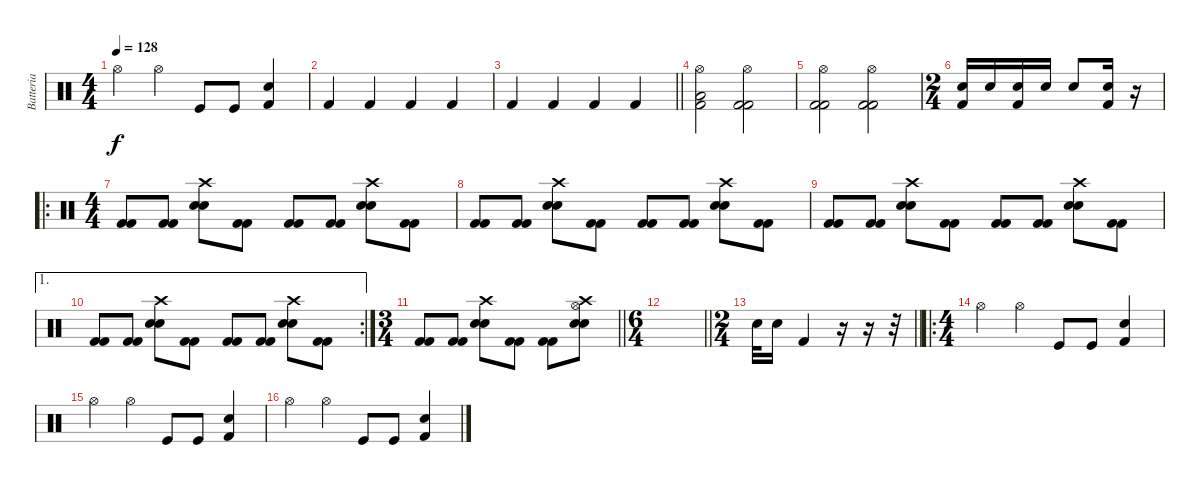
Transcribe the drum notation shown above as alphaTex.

\track ("Batteria" "Batteria") {instrument percussion}
\staff {score}
\articulation defaults
\ts (4 4)
\tempo 128
\clef neutral
\ks c "Hi-Hat (open)".4{dy f} "Hi-Hat (open)".4 "Kick (hit)".8 "Kick (hit)".8
("Kick (hit) 2" "Snare (hit) 2").4 |
"Kick (hit) 2".4 "Kick (hit) 2".4 "Kick (hit) 2".4 "Kick (hit) 2".4 |
\barLineRight lightlight "Kick (hit) 2".4 "Kick (hit) 2".4 "Kick (hit) 2".4 "Kick (hit) 2".4
|
("Kick (hit) 2" "Low Floor Tom (hit)" "Hi-Hat (open)").2 ("Kick (hit) 2" "Kick (hit) 2" "Hi-Hat (open)").2 |
("Kick (hit) 2" "Kick (hit) 2" "Hi-Hat (open)").2 ("Kick (hit) 2" "Kick (hit) 2" "Hi-Hat (open)").2 |
\ts (2 4)
("Snare (hit) 2" "Kick (hit) 2").16 "Snare (hit) 2".16 ("Snare (hit) 2" "Kick (hit) 2").16 "Snare (hit) 2".16 "Snare (hit) 2".8 ("Electric Snare (hit)" "Kick (hit) 2").16 r.16 |
\ro
\ts (4 4)
("Kick (hit) 2" "Kick (hit) 2").8 ("Kick (hit) 2" "Kick (hit) 2").8 ("Crash high (hit)" "Electric Snare (hit)" "Snare (hit) 2").8 ("Kick (hit) 2" "Kick (hit) 2").8 ("Kick (hit) 2" "Kick (hit) 2").8 ("Kick (hit) 2" "Kick (hit) 2").8 ("Crash high (hit)" "Electric Snare (hit)" "Snare (hit) 2").8 ("Kick (hit) 2" "Kick (hit) 2").8 |
("Kick (hit) 2" "Kick (hit) 2").8 ("Kick (hit) 2" "Kick (hit) 2").8 ("Crash high (hit)" "Electric Snare (hit)" "Snare (hit) 2").8 ("Kick (hit) 2" "Kick (hit) 2").8 ("Kick (hit) 2" "Kick (hit) 2").8 ("Kick (hit) 2" "Kick (hit) 2").8 ("Crash high (hit)" "Electric Snare (hit)" "Snare (hit) 2").8 ("Kick (hit) 2" "Kick (hit) 2").8 |
("Kick (hit) 2" "Kick (hit) 2").8 ("Kick (hit) 2" "Kick (hit) 2").8 ("Crash high (hit)" "Electric Snare (hit)" "Snare (hit) 2").8 ("Kick (hit) 2" "Kick (hit) 2").8 ("Kick (hit) 2" "Kick (hit) 2").8 ("Kick (hit) 2" "Kick (hit) 2").8 ("Crash high (hit)" "Electric Snare (hit)" "Snare (hit) 2").8 ("Kick (hit) 2" "Kick (hit) 2").8 |
\ae 1
\rc 2
("Kick (hit) 2" "Kick (hit) 2").8 ("Kick (hit) 2" "Kick (hit) 2").8 ("Crash high (hit)" "Electric Snare (hit)" "Snare (hit) 2").8 ("Kick (hit) 2" "Kick (hit) 2").8 ("Kick (hit) 2" "Kick (hit) 2").8 ("Kick (hit) 2" "Kick (hit) 2").8 ("Crash high (hit)" "Electric Snare (hit)" "Snare (hit) 2").8 ("Kick (hit) 2" "Kick (hit) 2").8 |
\ts (3 4)
\barLineRight lightlight
("Kick (hit) 2" "Kick (hit) 2").8 ("Kick (hit) 2" "Kick (hit) 2").8 ("Crash high (hit)" "Electric Snare (hit)" "Snare (hit) 2").8 ("Kick (hit) 2" "Kick (hit) 2").8 ("Kick (hit) 2" "Kick (hit) 2").8 ("Hi-Hat (open)" "Crash high (hit)" "Snare (hit) 2" "Electric Snare (hit)").8 |
\ts (6 4)
\barLineRight lightlight
|
\ts (2 4)
\barLineRight lightlight "Electric Snare (hit)".32 "Electric Snare (hit)".16 "Kick (hit) 2".4
r.16 r.16 r.32 |
\ro
\ts (4 4)
"Hi-Hat (open)".4 "Hi-Hat (open)".4 "Kick (hit)".8 "Kick (hit)".8 ("Kick (hit) 2" "Snare (hit) 2").4 |
"Hi-Hat (open)".4 "Hi-Hat (open)".4 "Kick (hit)".8 "Kick (hit)".8 ("Kick (hit) 2" "Snare (hit) 2").4 |
"Hi-Hat (open)".4 "Hi-Hat (open)".4 "Kick (hit)".8 "Kick (hit)".8 ("Kick (hit) 2" "Snare (hit) 2").4
